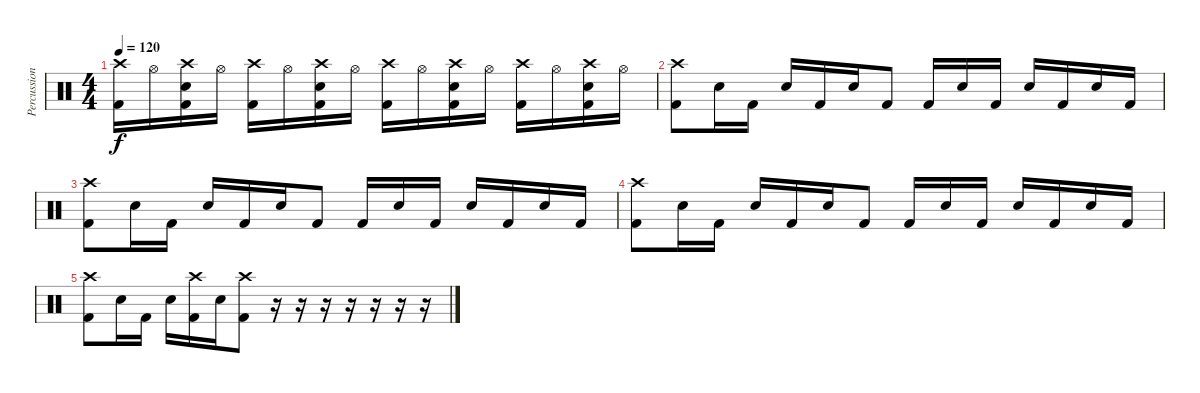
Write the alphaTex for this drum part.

\track ("Percussion" "Percussion") {instrument percussion}
\staff {score}
\articulation defaults
\ts (4 4)
\tempo 120
\clef neutral
\ks c
("Crash high (hit)" "Kick (hit) 2").16{dy f} "Hi-Hat (open)".16 ("Crash high (hit)" "Electric Snare (hit)" "Kick (hit) 2").16 "Hi-Hat (open)".16 ("Crash high (hit)" "Kick (hit) 2").16 "Hi-Hat (open)".16 ("Crash high (hit)" "Electric Snare (hit)" "Kick (hit) 2").16 "Hi-Hat (open)".16 ("Crash high (hit)" "Kick (hit) 2").16 "Hi-Hat (open)".16 ("Crash high (hit)" "Electric Snare (hit)" "Kick (hit) 2").16 "Hi-Hat (open)".16 ("Crash high (hit)" "Kick (hit) 2").16 "Hi-Hat (open)".16 ("Crash high (hit)" "Electric Snare (hit)" "Kick (hit) 2").16 "Hi-Hat (open)".16 |
("Crash high (hit)" "Kick (hit) 2").8 "Electric Snare (hit)".16 "Kick (hit) 2".16 "Electric Snare (hit)".16 "Kick (hit) 2".16 "Electric Snare (hit)".16 "Kick (hit) 2".8 "Kick (hit) 2".16 "Electric Snare (hit)".16 "Kick (hit) 2".16 "Electric Snare (hit)".16 "Kick (hit) 2".16 "Electric Snare (hit)".16 "Kick (hit) 2".16 |
("Crash high (hit)" "Kick (hit) 2").8 "Electric Snare (hit)".16 "Kick (hit) 2".16 "Electric Snare (hit)".16 "Kick (hit) 2".16 "Electric Snare (hit)".16 "Kick (hit) 2".8 "Kick (hit) 2".16 "Electric Snare (hit)".16 "Kick (hit) 2".16 "Electric Snare (hit)".16 "Kick (hit) 2".16 "Electric Snare (hit)".16 "Kick (hit) 2".16 |
("Crash high (hit)" "Kick (hit) 2").8 "Electric Snare (hit)".16 "Kick (hit) 2".16 "Electric Snare (hit)".16 "Kick (hit) 2".16 "Electric Snare (hit)".16 "Kick (hit) 2".8 "Kick (hit) 2".16 "Electric Snare (hit)".16 "Kick (hit) 2".16 "Electric Snare (hit)".16 "Kick (hit) 2".16 "Electric Snare (hit)".16 "Kick (hit) 2".16 |
("Crash high (hit)" "Kick (hit) 2").8 "Electric Snare (hit)".16 "Kick (hit) 2".16 "Electric Snare (hit)".16 ("Crash high (hit)" "Kick (hit) 2").16 "Electric Snare (hit)".16 ("Crash high (hit)" "Kick (hit) 2").8 r.16 r.16 r.16 r.16 r.16 r.16 r.16
